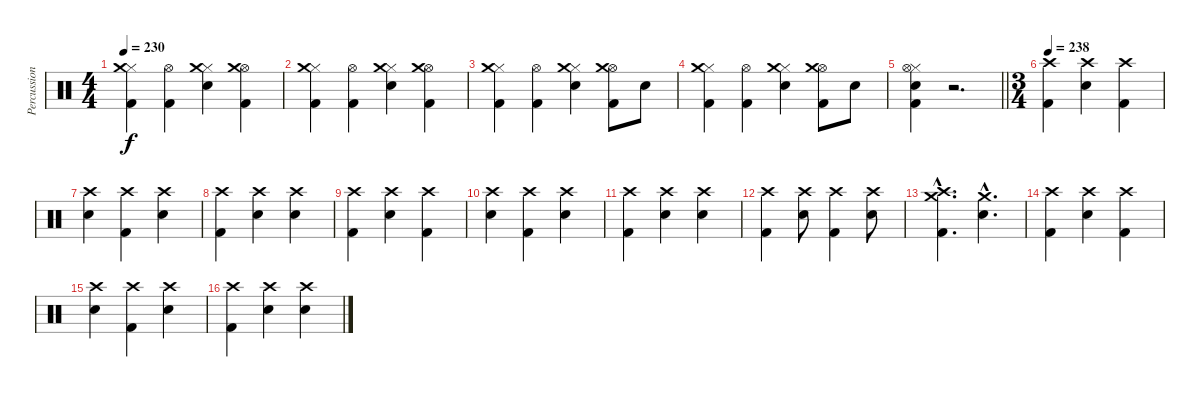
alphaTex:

\track ("Percussion" "Percussion") {instrument percussion}
\staff {score}
\articulation defaults
\ts (4 4)
\tempo 230
\clef neutral
\ks c
("Hi-Hat (closed)" "Crash medium (hit)" "Kick (hit) 2").4{dy f} ("Hi-Hat (open)" "Kick (hit) 2").4 ("Hi-Hat (closed)" "Crash medium (hit)" "Electric Snare (hit)").4 ("Hi-Hat (open)" "Crash medium (hit)" "Kick (hit) 2").4 |
("Hi-Hat (closed)" "Crash medium (hit)" "Kick (hit) 2").4 ("Hi-Hat (open)" "Kick (hit) 2").4 ("Hi-Hat (closed)" "Crash medium (hit)" "Electric Snare (hit)").4 ("Hi-Hat (open)" "Crash medium (hit)" "Kick (hit) 2").4 |
("Hi-Hat (closed)" "Crash medium (hit)" "Kick (hit) 2").4 ("Hi-Hat (open)" "Kick (hit) 2").4 ("Hi-Hat (closed)" "Crash medium (hit)" "Electric Snare (hit)").4 ("Hi-Hat (open)" "Crash medium (hit)" "Kick (hit) 2").8 "Electric Snare (hit)".8 |
("Hi-Hat (closed)" "Crash medium (hit)" "Kick (hit) 2").4 ("Hi-Hat (open)" "Kick (hit) 2").4 ("Hi-Hat (closed)" "Crash medium (hit)" "Electric Snare (hit)").4 ("Hi-Hat (open)" "Crash medium (hit)" "Kick (hit) 2").8 "Electric Snare (hit)".8 |
\barLineRight lightlight
("Hi-Hat (closed)" "Hi-Hat (open)" "Electric Snare (hit)" "Kick (hit) 2").4 r.2{d} |
\ts (3 4)
\tempo 238
("Crash high (hit)" "Kick (hit) 2").4 ("Crash high (hit)" "Electric Snare (hit)").4 ("Crash high (hit)" "Kick (hit) 2").4 |
("Crash high (hit)" "Electric Snare (hit)").4 ("Crash high (hit)" "Kick (hit) 2").4 ("Crash high (hit)" "Electric Snare (hit)").4 |
("Crash high (hit)" "Kick (hit) 2").4 ("Crash high (hit)" "Electric Snare (hit)").4 ("Crash high (hit)" "Electric Snare (hit)").4 |
("Crash high (hit)" "Kick (hit) 2").4 ("Crash high (hit)" "Electric Snare (hit)").4 ("Crash high (hit)" "Kick (hit) 2").4 |
("Crash high (hit)" "Electric Snare (hit)").4 ("Crash high (hit)" "Kick (hit) 2").4 ("Crash high (hit)" "Electric Snare (hit)").4 |
("Crash high (hit)" "Kick (hit) 2").4 ("Crash high (hit)" "Electric Snare (hit)").4 ("Crash high (hit)" "Electric Snare (hit)").4 |
("Crash high (hit)" "Kick (hit) 2").4 ("Crash high (hit)" "Electric Snare (hit)").8 ("Crash high (hit)" "Kick (hit) 2").4 ("Crash high (hit)" "Electric Snare (hit)").8 |
("Crash medium (hit)"{hac} "Crash high (hit)"{hac} "Kick (hit) 2"{hac}).4{d} ("Crash medium (hit)"{hac} "Electric Snare (hit)"{hac}).4{d} |
("Crash high (hit)" "Kick (hit) 2").4 ("Crash high (hit)" "Electric Snare (hit)").4 ("Crash high (hit)" "Kick (hit) 2").4 |
("Crash high (hit)" "Electric Snare (hit)").4 ("Crash high (hit)" "Kick (hit) 2").4 ("Crash high (hit)" "Electric Snare (hit)").4 |
("Crash high (hit)" "Kick (hit) 2").4 ("Crash high (hit)" "Electric Snare (hit)").4 ("Crash high (hit)" "Electric Snare (hit)").4
